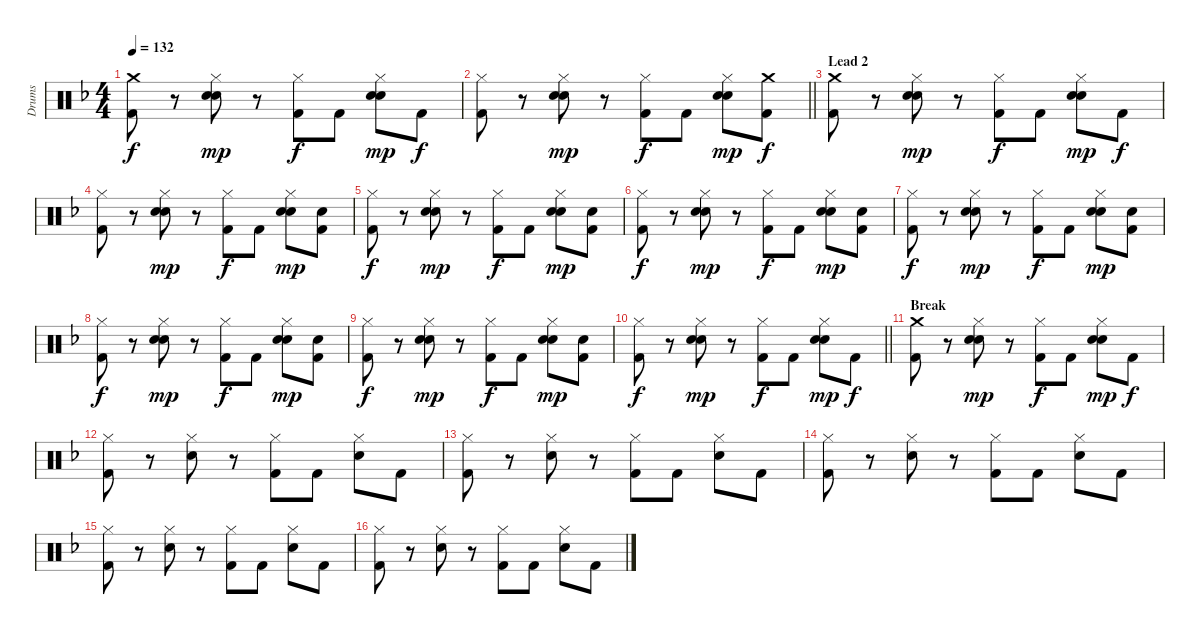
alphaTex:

\track ("Drums" "Drums") {instrument percussion}
\staff {score}
\articulation defaults
\ts (4 4)
\tempo 132
\clef neutral
\ks f
("Crash medium (hit)" "Kick (hit) 2").8{dy f} r.8 ("Hi-Hat (closed)" "Hand Clap (hit)" "Snare (hit) 2").8{dy mp} r.8 ("Hi-Hat (closed)" "Kick (hit) 2").8{dy f} "Kick (hit) 2".8 ("Hi-Hat (closed)" "Hand Clap (hit)" "Snare (hit) 2").8{dy mp} "Kick (hit) 2".8{dy f} |
\barLineRight lightlight
("Hi-Hat (closed)" "Kick (hit) 2").8 r.8 ("Hi-Hat (closed)" "Hand Clap (hit)" "Snare (hit) 2").8{dy mp} r.8 ("Hi-Hat (closed)" "Kick (hit) 2").8{dy f} "Kick (hit) 2".8 ("Hi-Hat (closed)" "Hand Clap (hit)" "Snare (hit) 2").8{dy mp} ("Crash medium (hit)" "Kick (hit) 2").8{dy f} |
\section ("" "Lead 2")
("Crash medium (hit)" "Kick (hit) 2").8 r.8 ("Hi-Hat (closed)" "Hand Clap (hit)" "Snare (hit) 2").8{dy mp} r.8 ("Hi-Hat (closed)" "Kick (hit) 2").8{dy f} "Kick (hit) 2".8 ("Hi-Hat (closed)" "Hand Clap (hit)" "Snare (hit) 2").8{dy mp} "Kick (hit) 2".8{dy f} |
("Hi-Hat (closed)" "Kick (hit) 2").8 r.8 ("Hi-Hat (closed)" "Hand Clap (hit)" "Snare (hit) 2").8{dy mp} r.8 ("Hi-Hat (closed)" "Kick (hit) 2").8{dy f} "Kick (hit) 2".8 ("Hi-Hat (closed)" "Hand Clap (hit)" "Snare (hit) 2").8{dy mp} ("Hand Clap (hit)" "Kick (hit) 2").8 |
("Hi-Hat (closed)" "Kick (hit) 2").8{dy f} r.8 ("Hi-Hat (closed)" "Hand Clap (hit)" "Snare (hit) 2").8{dy mp} r.8 ("Hi-Hat (closed)" "Kick (hit) 2").8{dy f} "Kick (hit) 2".8 ("Hi-Hat (closed)" "Hand Clap (hit)" "Snare (hit) 2").8{dy mp} ("Hand Clap (hit)" "Kick (hit) 2").8 |
("Hi-Hat (closed)" "Kick (hit) 2").8{dy f} r.8 ("Hi-Hat (closed)" "Hand Clap (hit)" "Snare (hit) 2").8{dy mp} r.8 ("Hi-Hat (closed)" "Kick (hit) 2").8{dy f} "Kick (hit) 2".8 ("Hi-Hat (closed)" "Hand Clap (hit)" "Snare (hit) 2").8{dy mp} ("Hand Clap (hit)" "Kick (hit) 2").8 |
("Hi-Hat (closed)" "Kick (hit) 2").8{dy f} r.8 ("Hi-Hat (closed)" "Hand Clap (hit)" "Snare (hit) 2").8{dy mp} r.8 ("Hi-Hat (closed)" "Kick (hit) 2").8{dy f} "Kick (hit) 2".8 ("Hi-Hat (closed)" "Hand Clap (hit)" "Snare (hit) 2").8{dy mp} ("Hand Clap (hit)" "Kick (hit) 2").8 |
("Hi-Hat (closed)" "Kick (hit) 2").8{dy f} r.8 ("Hi-Hat (closed)" "Hand Clap (hit)" "Snare (hit) 2").8{dy mp} r.8 ("Hi-Hat (closed)" "Kick (hit) 2").8{dy f} "Kick (hit) 2".8 ("Hi-Hat (closed)" "Hand Clap (hit)" "Snare (hit) 2").8{dy mp} ("Hand Clap (hit)" "Kick (hit) 2").8 |
("Hi-Hat (closed)" "Kick (hit) 2").8{dy f} r.8 ("Hi-Hat (closed)" "Hand Clap (hit)" "Snare (hit) 2").8{dy mp} r.8 ("Hi-Hat (closed)" "Kick (hit) 2").8{dy f} "Kick (hit) 2".8 ("Hi-Hat (closed)" "Hand Clap (hit)" "Snare (hit) 2").8{dy mp} ("Hand Clap (hit)" "Kick (hit) 2").8 |
\barLineRight lightlight
("Hi-Hat (closed)" "Kick (hit) 2").8{dy f} r.8 ("Hi-Hat (closed)" "Hand Clap (hit)" "Snare (hit) 2").8{dy mp} r.8 ("Hi-Hat (closed)" "Kick (hit) 2").8{dy f} "Kick (hit) 2".8 ("Hi-Hat (closed)" "Hand Clap (hit)" "Snare (hit) 2").8{dy mp} "Kick (hit) 2".8{dy f} |
\section ("" "Break")
("Crash medium (hit)" "Kick (hit) 2").8 r.8 ("Hi-Hat (closed)" "Hand Clap (hit)" "Snare (hit) 2").8{dy mp} r.8 ("Hi-Hat (closed)" "Kick (hit) 2").8{dy f} "Kick (hit) 2".8 ("Hi-Hat (closed)" "Hand Clap (hit)" "Snare (hit) 2").8{dy mp} "Kick (hit) 2".8{dy f} |
("Hi-Hat (closed)" "Kick (hit) 2").8 r.8 ("Hi-Hat (closed)" "Snare (hit) 2").8 r.8 ("Hi-Hat (closed)" "Kick (hit) 2").8 "Kick (hit) 2".8 ("Hi-Hat (closed)" "Snare (hit) 2").8 "Kick (hit) 2".8 |
("Hi-Hat (closed)" "Kick (hit) 2").8 r.8 ("Hi-Hat (closed)" "Snare (hit) 2").8 r.8 ("Hi-Hat (closed)" "Kick (hit) 2").8 "Kick (hit) 2".8 ("Hi-Hat (closed)" "Snare (hit) 2").8 "Kick (hit) 2".8 |
("Hi-Hat (closed)" "Kick (hit) 2").8 r.8 ("Hi-Hat (closed)" "Snare (hit) 2").8 r.8 ("Hi-Hat (closed)" "Kick (hit) 2").8 "Kick (hit) 2".8 ("Hi-Hat (closed)" "Snare (hit) 2").8 "Kick (hit) 2".8 |
("Hi-Hat (closed)" "Kick (hit) 2").8 r.8 ("Hi-Hat (closed)" "Snare (hit) 2").8 r.8 ("Hi-Hat (closed)" "Kick (hit) 2").8 "Kick (hit) 2".8 ("Hi-Hat (closed)" "Snare (hit) 2").8 "Kick (hit) 2".8 |
("Hi-Hat (closed)" "Kick (hit) 2").8 r.8 ("Hi-Hat (closed)" "Snare (hit) 2").8 r.8 ("Hi-Hat (closed)" "Kick (hit) 2").8 "Kick (hit) 2".8 ("Hi-Hat (closed)" "Snare (hit) 2").8 "Kick (hit) 2".8
